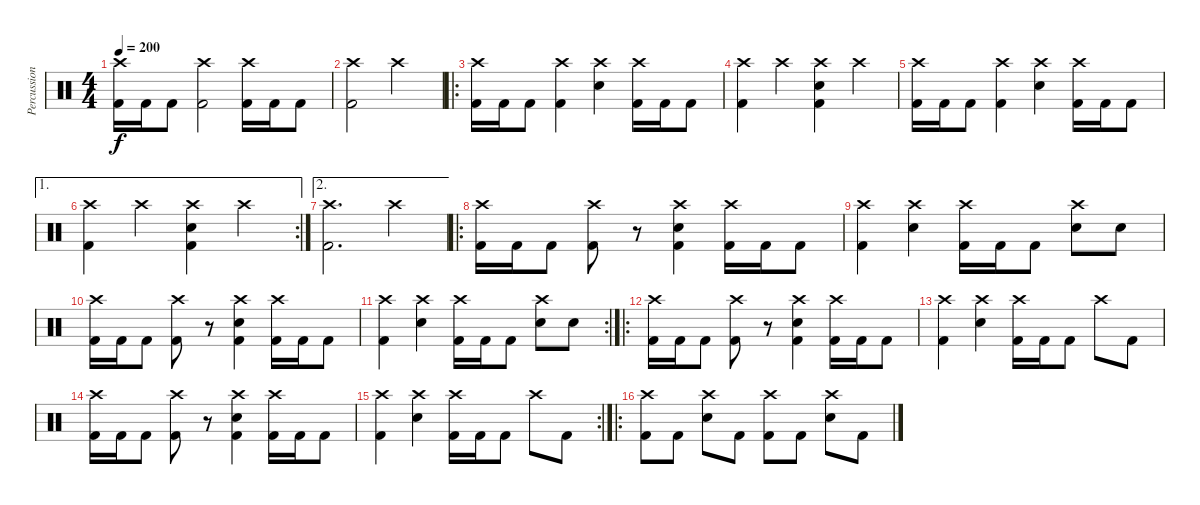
\track ("Percussion" "Percussion") {instrument percussion}
\staff {score}
\articulation defaults
\ts (4 4)
\tempo 200
\clef neutral
\ks c
("Crash high (hit)" "Kick (hit) 2").16{dy f} "Kick (hit) 2".16 "Kick (hit) 2".8 ("Crash high (hit)" "Kick (hit) 2").2 ("Crash high (hit)" "Kick (hit) 2").16 "Kick (hit) 2".16 "Kick (hit) 2".8 |
("Crash high (hit)" "Kick (hit) 2").2 "Crash high (hit)".2 |
\ro
("Crash high (hit)" "Kick (hit) 2").16 "Kick (hit) 2".16 "Kick (hit) 2".8 ("Crash high (hit)" "Kick (hit) 2").4 ("Crash high (hit)" "Electric Snare (hit)").4 ("Crash high (hit)" "Kick (hit) 2").16 "Kick (hit) 2".16 "Kick (hit) 2".8 |
("Crash high (hit)" "Kick (hit) 2").4 "Crash high (hit)".4 ("Crash high (hit)" "Electric Snare (hit)" "Kick (hit) 2").4 "Crash high (hit)".4 |
("Crash high (hit)" "Kick (hit) 2").16 "Kick (hit) 2".16 "Kick (hit) 2".8 ("Crash high (hit)" "Kick (hit) 2").4 ("Crash high (hit)" "Electric Snare (hit)").4 ("Crash high (hit)" "Kick (hit) 2").16 "Kick (hit) 2".16 "Kick (hit) 2".8 |
\ae 1
\rc 2
("Crash high (hit)" "Kick (hit) 2").4 "Crash high (hit)".4 ("Crash high (hit)" "Electric Snare (hit)" "Kick (hit) 2").4 "Crash high (hit)".4 |
\ae 2
("Crash high (hit)" "Kick (hit) 2").2{d} "Crash high (hit)".4 |
\ro
("Crash high (hit)" "Kick (hit) 2").16 "Kick (hit) 2".16 "Kick (hit) 2".8 ("Crash high (hit)" "Kick (hit) 2").8 r.8 ("Crash high (hit)" "Electric Snare (hit)" "Kick (hit) 2").4 ("Crash high (hit)" "Kick (hit) 2").16 "Kick (hit) 2".16 "Kick (hit) 2".8 |
("Crash high (hit)" "Kick (hit) 2").4 ("Crash high (hit)" "Electric Snare (hit)").4 ("Crash high (hit)" "Kick (hit) 2").16 "Kick (hit) 2".16 "Kick (hit) 2".8 ("Crash high (hit)" "Electric Snare (hit)").8 "Electric Snare (hit)".8 |
("Crash high (hit)" "Kick (hit) 2").16 "Kick (hit) 2".16 "Kick (hit) 2".8 ("Crash high (hit)" "Kick (hit) 2").8 r.8 ("Crash high (hit)" "Electric Snare (hit)" "Kick (hit) 2").4 ("Crash high (hit)" "Kick (hit) 2").16 "Kick (hit) 2".16 "Kick (hit) 2".8 |
\rc 2
("Crash high (hit)" "Kick (hit) 2").4 ("Crash high (hit)" "Electric Snare (hit)").4 ("Crash high (hit)" "Kick (hit) 2").16 "Kick (hit) 2".16 "Kick (hit) 2".8 ("Crash high (hit)" "Electric Snare (hit)").8 "Electric Snare (hit)".8 |
\ro
("Crash high (hit)" "Kick (hit) 2").16 "Kick (hit) 2".16 "Kick (hit) 2".8 ("Crash high (hit)" "Kick (hit) 2").8 r.8 ("Crash high (hit)" "Electric Snare (hit)" "Kick (hit) 2").4 ("Crash high (hit)" "Kick (hit) 2").16 "Kick (hit) 2".16 "Kick (hit) 2".8 |
("Crash high (hit)" "Kick (hit) 2").4 ("Crash high (hit)" "Electric Snare (hit)").4 ("Crash high (hit)" "Kick (hit) 2").16 "Kick (hit) 2".16 "Kick (hit) 2".8 "Crash high (hit)".8 "Kick (hit) 2".8 |
("Crash high (hit)" "Kick (hit) 2").16 "Kick (hit) 2".16 "Kick (hit) 2".8 ("Crash high (hit)" "Kick (hit) 2").8 r.8 ("Crash high (hit)" "Electric Snare (hit)" "Kick (hit) 2").4 ("Crash high (hit)" "Kick (hit) 2").16 "Kick (hit) 2".16 "Kick (hit) 2".8 |
\rc 2
("Crash high (hit)" "Kick (hit) 2").4 ("Crash high (hit)" "Electric Snare (hit)").4 ("Crash high (hit)" "Kick (hit) 2").16 "Kick (hit) 2".16 "Kick (hit) 2".8 "Crash high (hit)".8 "Kick (hit) 2".8 |
\ro
("Crash high (hit)" "Kick (hit) 2").8 "Kick (hit) 2".8 ("Crash high (hit)" "Electric Snare (hit)").8 "Kick (hit) 2".8 ("Crash high (hit)" "Kick (hit) 2").8 "Kick (hit) 2".8 ("Crash high (hit)" "Electric Snare (hit)").8 "Kick (hit) 2".8
